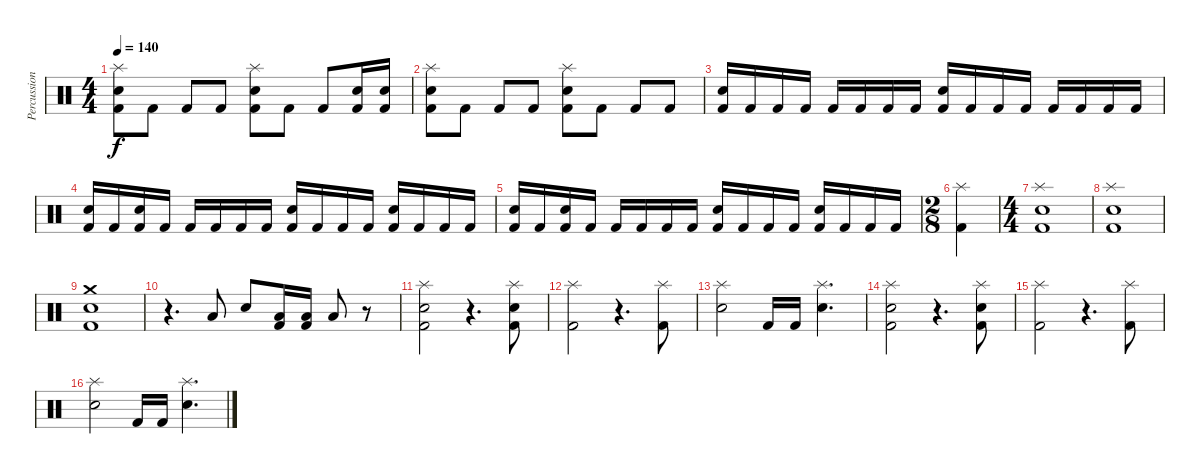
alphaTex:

\track ("Percussions" "Percussion") {instrument percussion}
\staff {score}
\articulation defaults
\ts (4 4)
\tempo 140
\clef neutral
\ks c
("Splash (hit)" "Electric Snare (hit)" "Kick (hit) 2").8{dy f} "Kick (hit) 2".8 "Kick (hit) 2".8 "Kick (hit) 2".8 ("Splash (hit)" "Electric Snare (hit)" "Kick (hit) 2").8 "Kick (hit) 2".8 "Kick (hit) 2".8 ("Electric Snare (hit)" "Kick (hit) 2").16 ("Electric Snare (hit)" "Kick (hit) 2").16 |
("Splash (hit)" "Electric Snare (hit)" "Kick (hit) 2").8 "Kick (hit) 2".8 "Kick (hit) 2".8 "Kick (hit) 2".8 ("Splash (hit)" "Electric Snare (hit)" "Kick (hit) 2").8 "Kick (hit) 2".8 "Kick (hit) 2".8 "Kick (hit) 2".8 |
("Electric Snare (hit)" "Kick (hit) 2").16 "Kick (hit) 2".16 "Kick (hit) 2".16 "Kick (hit) 2".16 "Kick (hit) 2".16 "Kick (hit) 2".16 "Kick (hit) 2".16 "Kick (hit) 2".16 ("Electric Snare (hit)" "Kick (hit) 2").16 "Kick (hit) 2".16 "Kick (hit) 2".16 "Kick (hit) 2".16 "Kick (hit) 2".16 "Kick (hit) 2".16 "Kick (hit) 2".16 "Kick (hit) 2".16 |
("Electric Snare (hit)" "Kick (hit) 2").16 "Kick (hit) 2".16 ("Electric Snare (hit)" "Kick (hit) 2").16 "Kick (hit) 2".16 "Kick (hit) 2".16 "Kick (hit) 2".16 "Kick (hit) 2".16 "Kick (hit) 2".16 ("Electric Snare (hit)" "Kick (hit) 2").16 "Kick (hit) 2".16 "Kick (hit) 2".16 "Kick (hit) 2".16 ("Electric Snare (hit)" "Kick (hit) 2").16 "Kick (hit) 2".16 "Kick (hit) 2".16 "Kick (hit) 2".16 |
("Electric Snare (hit)" "Kick (hit) 2").16 "Kick (hit) 2".16 ("Electric Snare (hit)" "Kick (hit) 2").16 "Kick (hit) 2".16 "Kick (hit) 2".16 "Kick (hit) 2".16 "Kick (hit) 2".16 "Kick (hit) 2".16 ("Electric Snare (hit)" "Kick (hit) 2").16 "Kick (hit) 2".16 "Kick (hit) 2".16 "Kick (hit) 2".16 ("Electric Snare (hit)" "Kick (hit) 2").16 "Kick (hit) 2".16 "Kick (hit) 2".16 "Kick (hit) 2".16 |
\ts (2 8)
("Splash (hit)" "Kick (hit) 2").4 |
\ts (4 4)
("Splash (hit)" "Electric Snare (hit)" "Kick (hit) 2").1 |
("Splash (hit)" "Electric Snare (hit)" "Kick (hit) 2").1 |
("Crash medium (hit)" "Electric Snare (hit)" "Kick (hit) 2").1 |
r.4{d} "Low Floor Tom (hit)".8 "Electric Snare (hit)".8 ("Low Floor Tom (hit)" "Kick (hit) 2").16 ("Low Floor Tom (hit)" "Kick (hit) 2").16 "Low Floor Tom (hit)".8 r.8 |
("Kick (hit) 2" "Splash (hit)" "Electric Snare (hit)").2 r.4{d} ("Kick (hit) 2" "Splash (hit)" "Electric Snare (hit)").8 |
("Splash (hit)" "Kick (hit) 2").2 r.4{d} ("Splash (hit)" "Kick (hit) 2").8 |
("Splash (hit)" "Electric Snare (hit)").2 "Kick (hit) 2".16 "Kick (hit) 2".16 ("Splash (hit)" "Electric Snare (hit)").4{d} |
("Kick (hit) 2" "Splash (hit)" "Electric Snare (hit)").2 r.4{d} ("Kick (hit) 2" "Splash (hit)" "Electric Snare (hit)").8 |
("Splash (hit)" "Kick (hit) 2").2 r.4{d} ("Splash (hit)" "Kick (hit) 2").8 |
("Splash (hit)" "Electric Snare (hit)").2 "Kick (hit) 2".16 "Kick (hit) 2".16 ("Splash (hit)" "Electric Snare (hit)").4{d}
